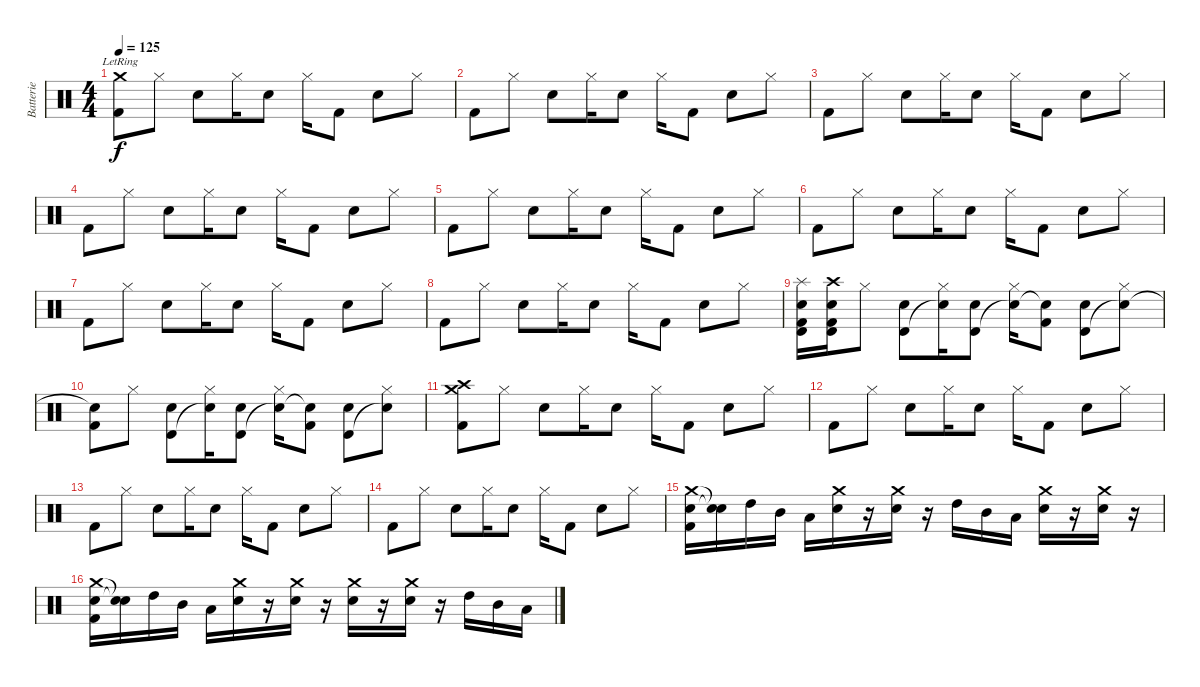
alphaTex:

\track ("Batterie" "Batterie") {instrument percussion}
\staff {score}
\articulation defaults
\ts (4 4)
\tempo 125
\clef neutral
\ks c
("Crash medium (hit)"{lr} "Kick (hit) 2").8{dy f} "Hi-Hat (closed)".8 "Electric Snare (hit)".8 "Hi-Hat (closed)".16 "Electric Snare (hit)".8 "Hi-Hat (closed)".16 "Kick (hit) 2".8 "Electric Snare (hit)".8 "Hi-Hat (closed)".8 |
"Kick (hit) 2".8 "Hi-Hat (closed)".8 "Electric Snare (hit)".8 "Hi-Hat (closed)".16 "Electric Snare (hit)".8 "Hi-Hat (closed)".16 "Kick (hit) 2".8 "Electric Snare (hit)".8 "Hi-Hat (closed)".8 |
"Kick (hit) 2".8 "Hi-Hat (closed)".8 "Electric Snare (hit)".8 "Hi-Hat (closed)".16 "Electric Snare (hit)".8 "Hi-Hat (closed)".16 "Kick (hit) 2".8 "Electric Snare (hit)".8 "Hi-Hat (closed)".8 |
"Kick (hit) 2".8 "Hi-Hat (closed)".8 "Electric Snare (hit)".8 "Hi-Hat (closed)".16 "Electric Snare (hit)".8 "Hi-Hat (closed)".16 "Kick (hit) 2".8 "Electric Snare (hit)".8 "Hi-Hat (closed)".8 |
"Kick (hit) 2".8 "Hi-Hat (closed)".8 "Electric Snare (hit)".8 "Hi-Hat (closed)".16 "Electric Snare (hit)".8 "Hi-Hat (closed)".16 "Kick (hit) 2".8 "Electric Snare (hit)".8 "Hi-Hat (closed)".8 |
"Kick (hit) 2".8 "Hi-Hat (closed)".8 "Electric Snare (hit)".8 "Hi-Hat (closed)".16 "Electric Snare (hit)".8 "Hi-Hat (closed)".16 "Kick (hit) 2".8 "Electric Snare (hit)".8 "Hi-Hat (closed)".8 |
"Kick (hit) 2".8 "Hi-Hat (closed)".8 "Electric Snare (hit)".8 "Hi-Hat (closed)".16 "Electric Snare (hit)".8 "Hi-Hat (closed)".16 "Kick (hit) 2".8 "Electric Snare (hit)".8 "Hi-Hat (closed)".8 |
"Kick (hit) 2".8 "Hi-Hat (closed)".8 "Electric Snare (hit)".8 "Hi-Hat (closed)".16 "Electric Snare (hit)".8 "Hi-Hat (closed)".16 "Kick (hit) 2".8 "Electric Snare (hit)".8 "Hi-Hat (closed)".8 |
("Timbale high (hit)" "Splash (hit)" "Kick (hit) 2" "Electric Snare (hit)").16 ("Timbale high (hit)" "Crash high (hit)" "Kick (hit) 2" "Electric Snare (hit)").16 "Hi-Hat (closed)".8 ("Electric Snare (hit)" "Timbale high (hit)").8 ("Hi-Hat (closed)" "Snare (hit)"{t}).16 ("Electric Snare (hit)" "Timbale high (hit)").8 ("Hi-Hat (closed)" "Snare (hit)"{t}).16 ("Kick (hit) 2" "Snare (hit)"{t}).8 ("Electric Snare (hit)" "Timbale high (hit)").8 ("Hi-Hat (closed)" "Snare (hit)"{t}).8 |
("Kick (hit) 2" "Snare (hit)"{t}).8 "Hi-Hat (closed)".8 ("Electric Snare (hit)" "Timbale high (hit)").8 ("Hi-Hat (closed)" "Snare (hit)"{t}).16 ("Electric Snare (hit)" "Timbale high (hit)").8 ("Hi-Hat (closed)" "Snare (hit)"{t}).16 ("Kick (hit) 2" "Snare (hit)"{t}).8 ("Electric Snare (hit)" "Timbale high (hit)").8 ("Hi-Hat (closed)" "Snare (hit)"{t}).8 |
("Crash medium (hit)" "Crash high (hit)" "Kick (hit) 2").8 "Hi-Hat (closed)".8 "Electric Snare (hit)".8 "Hi-Hat (closed)".16 "Electric Snare (hit)".8 "Hi-Hat (closed)".16 "Kick (hit) 2".8 "Electric Snare (hit)".8 "Hi-Hat (closed)".8 |
"Kick (hit) 2".8 "Hi-Hat (closed)".8 "Electric Snare (hit)".8 "Hi-Hat (closed)".16 "Electric Snare (hit)".8 "Hi-Hat (closed)".16 "Kick (hit) 2".8 "Electric Snare (hit)".8 "Hi-Hat (closed)".8 |
"Kick (hit) 2".8 "Hi-Hat (closed)".8 "Electric Snare (hit)".8 "Hi-Hat (closed)".16 "Electric Snare (hit)".8 "Hi-Hat (closed)".16 "Kick (hit) 2".8 "Electric Snare (hit)".8 "Hi-Hat (closed)".8 |
"Kick (hit) 2".8 "Hi-Hat (closed)".8 "Electric Snare (hit)".8 "Hi-Hat (closed)".16 "Electric Snare (hit)".8 "Hi-Hat (closed)".16 "Kick (hit) 2".8 "Electric Snare (hit)".8 "Hi-Hat (closed)".8 |
("Crash medium (hit)" "Electric Snare (hit)" "Kick (hit) 2").16 ("Snare (hit)"{t} "Snare (hit)"{t}).16 "High Tom (hit)".16 "Mid Tom (hit)".16 "Low Tom (hit)".16 ("Crash medium (hit)" "Electric Snare (hit)").16 r.16 ("Crash medium (hit)" "Electric Snare (hit)").16 r.16 "High Tom (hit)".16 "Mid Tom (hit)".16 "Low Tom (hit)".16 ("Crash medium (hit)" "Electric Snare (hit)").16 r.16 ("Crash medium (hit)" "Electric Snare (hit)").16 r.16 |
("Crash medium (hit)" "Electric Snare (hit)" "Kick (hit) 2").16 ("Snare (hit)"{t} "Snare (hit)"{t}).16 "High Tom (hit)".16 "Mid Tom (hit)".16 "Low Tom (hit)".16 ("Crash medium (hit)" "Electric Snare (hit)").16 r.16 ("Crash medium (hit)" "Electric Snare (hit)").16 r.16 ("Crash medium (hit)" "Electric Snare (hit)").16 r.16 ("Crash medium (hit)" "Electric Snare (hit)").16 r.16 "High Tom (hit)".16 "Mid Tom (hit)".16 "Low Tom (hit)".16
